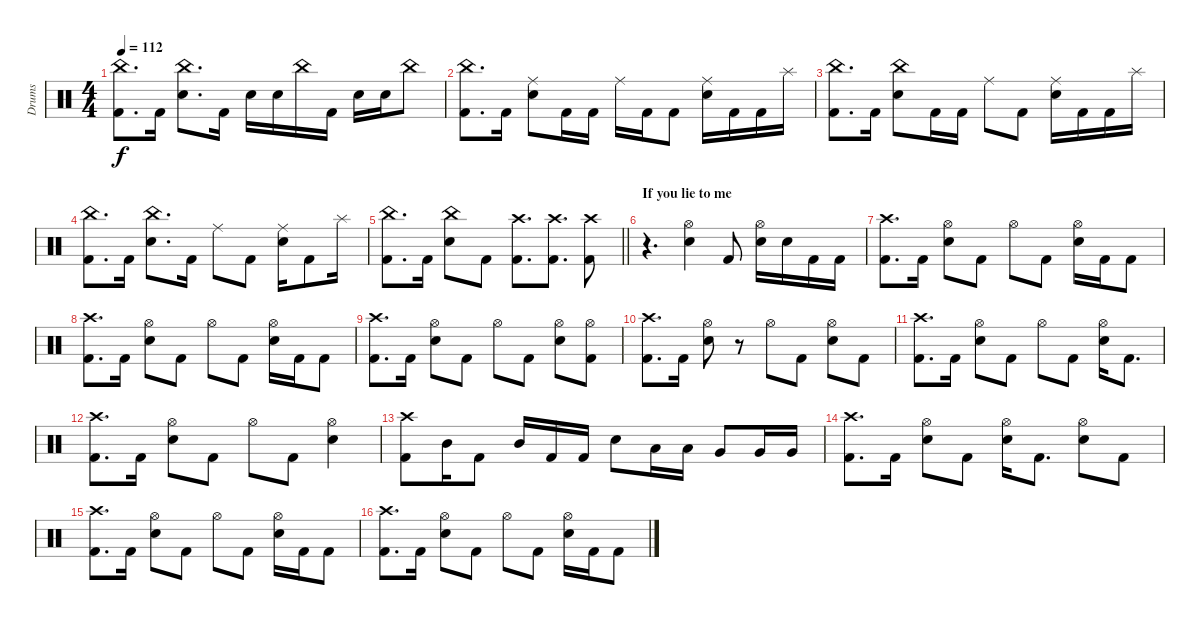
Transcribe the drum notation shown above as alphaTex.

\track ("Drums" "Drums") {instrument percussion}
\staff {score}
\articulation defaults
\ts (4 4)
\tempo 112
\clef neutral
\ks c
("China (hit)" "Kick (hit) 2").8{d dy f} "Kick (hit) 2".16 ("China (hit)" "Electric Snare (hit)").8{d} "Kick (hit) 2".16 "Electric Snare (hit)".16 "Electric Snare (hit)".16 "China (hit)".16 "Kick (hit) 2".16 "Electric Snare (hit)".16 "Electric Snare (hit)".16 "China (hit)".8 |
("China (hit)" "Kick (hit) 2").8{d} "Kick (hit) 2".16 ("Ride (middle)" "Electric Snare (hit)").8 "Kick (hit) 2".16 "Kick (hit) 2".16 "Ride (middle)".16 "Kick (hit) 2".16 "Kick (hit) 2".8 ("Ride (middle)" "Electric Snare (hit)").16 "Kick (hit) 2".16 "Kick (hit) 2".16 "Splash (hit)".16 |
("China (hit)" "Kick (hit) 2").8{d} "Kick (hit) 2".16 ("China (hit)" "Electric Snare (hit)").8 "Kick (hit) 2".16 "Kick (hit) 2".16 "Ride (middle)".8 "Kick (hit) 2".8 ("Ride (middle)" "Electric Snare (hit)").16 "Kick (hit) 2".16 "Kick (hit) 2".16 "Splash (hit)".16 |
("China (hit)" "Kick (hit) 2").8{d} "Kick (hit) 2".16 ("China (hit)" "Electric Snare (hit)").8{d} "Kick (hit) 2".16 "Ride (middle)".8 "Kick (hit) 2".8 ("Ride (middle)" "Electric Snare (hit)").16 "Kick (hit) 2".8 "Splash (hit)".16 |
\barLineRight lightlight
("China (hit)" "Kick (hit) 2").8{d} "Kick (hit) 2".16 ("China (hit)" "Electric Snare (hit)").8 "Kick (hit) 2".8 ("Crash high (hit)" "Kick (hit) 2").8{d} ("Crash high (hit)" "Kick (hit) 2").8{d} ("Crash high (hit)" "Kick (hit) 2").8 |
\section ("" "If you lie to me")
r.4{d} ("Hi-Hat (open)" "Electric Snare (hit)").4 "Kick (hit) 2".8 ("Hi-Hat (open)" "Electric Snare (hit)").16 "Electric Snare (hit)".16 "Kick (hit) 2".16 "Kick (hit) 2".16 |
("Crash high (hit)" "Kick (hit) 2").8{d} "Kick (hit) 2".16 ("Hi-Hat (open)" "Electric Snare (hit)").8 "Kick (hit) 2".8 "Hi-Hat (open)".8 "Kick (hit) 2".8 ("Hi-Hat (open)" "Electric Snare (hit)").16 "Kick (hit) 2".16 "Kick (hit) 2".8 |
("Crash high (hit)" "Kick (hit) 2").8{d} "Kick (hit) 2".16 ("Hi-Hat (open)" "Electric Snare (hit)").8 "Kick (hit) 2".8 "Hi-Hat (open)".8 "Kick (hit) 2".8 ("Hi-Hat (open)" "Electric Snare (hit)").16 "Kick (hit) 2".16 "Kick (hit) 2".8 |
("Crash high (hit)" "Kick (hit) 2").8{d} "Kick (hit) 2".16 ("Hi-Hat (open)" "Electric Snare (hit)").8 "Kick (hit) 2".8 "Hi-Hat (open)".8 "Kick (hit) 2".8 ("Hi-Hat (open)" "Electric Snare (hit)").8 ("Hi-Hat (open)" "Kick (hit) 2").8 |
("Crash high (hit)" "Kick (hit) 2").8{d} "Kick (hit) 2".16 ("Hi-Hat (open)" "Electric Snare (hit)").8 r.8 "Hi-Hat (open)".8 "Kick (hit) 2".8 ("Hi-Hat (open)" "Electric Snare (hit)").8 "Kick (hit) 2".8 |
("Crash high (hit)" "Kick (hit) 2").8{d} "Kick (hit) 2".16 ("Hi-Hat (open)" "Electric Snare (hit)").8 "Kick (hit) 2".8 "Hi-Hat (open)".8 "Kick (hit) 2".8 ("Hi-Hat (open)" "Electric Snare (hit)").16 "Kick (hit) 2".8{d} |
("Crash high (hit)" "Kick (hit) 2").8{d} "Kick (hit) 2".16 ("Hi-Hat (open)" "Electric Snare (hit)").8 "Kick (hit) 2".8 "Hi-Hat (open)".8 "Kick (hit) 2".8 ("Hi-Hat (open)" "Electric Snare (hit)").4 |
("Crash high (hit)" "Kick (hit) 2").8 "Mid Tom (hit)".16 "Kick (hit) 2".8 "Mid Tom (hit)".16 "Kick (hit) 2".16 "Kick (hit) 2".16 "Electric Snare (hit)".8 "Low Tom (hit)".16 "Low Tom (hit)".16 "Very Low Tom (hit)".8 "Very Low Tom (hit)".16 "Very Low Tom (hit)".16 |
("Crash high (hit)" "Kick (hit) 2").8{d} "Kick (hit) 2".16 ("Hi-Hat (open)" "Electric Snare (hit)").8 "Kick (hit) 2".8 ("Hi-Hat (open)" "Electric Snare (hit)").16 "Kick (hit) 2".8{d} ("Hi-Hat (open)" "Electric Snare (hit)").8 "Kick (hit) 2".8 |
("Crash high (hit)" "Kick (hit) 2").8{d} "Kick (hit) 2".16 ("Hi-Hat (open)" "Electric Snare (hit)").8 "Kick (hit) 2".8 "Hi-Hat (open)".8 "Kick (hit) 2".8 ("Hi-Hat (open)" "Electric Snare (hit)").16 "Kick (hit) 2".16 "Kick (hit) 2".8 |
("Crash high (hit)" "Kick (hit) 2").8{d} "Kick (hit) 2".16 ("Hi-Hat (open)" "Electric Snare (hit)").8 "Kick (hit) 2".8 "Hi-Hat (open)".8 "Kick (hit) 2".8 ("Hi-Hat (open)" "Electric Snare (hit)").16 "Kick (hit) 2".16 "Kick (hit) 2".8
